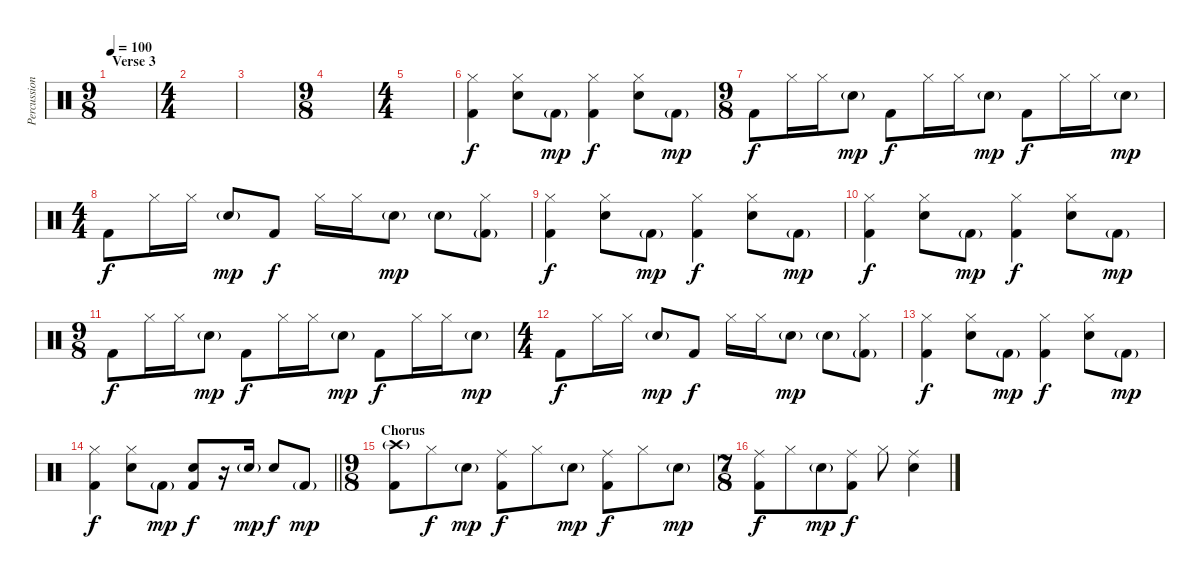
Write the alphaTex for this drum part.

\track ("Percussion" "Percussion") {instrument percussion}
\staff {score}
\articulation defaults
\ts (9 8)
\section ("" "Verse 3")
\tempo 100
\clef neutral
\ks c
|
\ts (4 4)
|
|
\ts (9 8)
|
\ts (4 4)
|
("Hi-Hat (closed)" "Kick (hit) 2").4 ("Hi-Hat (closed)" "Snare (hit) 2").8 "Kick (hit) 2"{g}.8{dy mp} ("Hi-Hat (closed)" "Kick (hit) 2").4{dy f} ("Hi-Hat (closed)" "Snare (hit) 2").8 "Kick (hit) 2"{g}.8{dy mp} |
\ts (9 8)
"Kick (hit) 2".8{dy f} "Hi-Hat (closed)".16 "Hi-Hat (closed)".16 "Snare (hit) 2"{g}.8{dy mp} "Kick (hit) 2".8{dy f} "Hi-Hat (closed)".16 "Hi-Hat (closed)".16 "Snare (hit) 2"{g}.8{dy mp} "Kick (hit) 2".8{dy f} "Hi-Hat (closed)".16 "Hi-Hat (closed)".16 "Snare (hit) 2"{g}.8{dy mp} |
\ts (4 4)
"Kick (hit) 2".8{dy f} "Hi-Hat (closed)".16 "Hi-Hat (closed)".16 "Snare (hit) 2"{g}.8{dy mp} "Kick (hit) 2".8{dy f} "Hi-Hat (closed)".16 "Hi-Hat (closed)".16 "Snare (hit) 2"{g}.8{dy mp} "Snare (hit) 2"{g}.8 ("Hi-Hat (closed)" "Kick (hit) 2"{g}).8 |
("Hi-Hat (closed)" "Kick (hit) 2").4{dy f} ("Hi-Hat (closed)" "Snare (hit) 2").8 "Kick (hit) 2"{g}.8{dy mp} ("Hi-Hat (closed)" "Kick (hit) 2").4{dy f} ("Hi-Hat (closed)" "Snare (hit) 2").8 "Kick (hit) 2"{g}.8{dy mp} |
("Hi-Hat (closed)" "Kick (hit) 2").4{dy f} ("Hi-Hat (closed)" "Snare (hit) 2").8 "Kick (hit) 2"{g}.8{dy mp} ("Hi-Hat (closed)" "Kick (hit) 2").4{dy f} ("Hi-Hat (closed)" "Snare (hit) 2").8 "Kick (hit) 2"{g}.8{dy mp} |
\ts (9 8)
"Kick (hit) 2".8{dy f} "Hi-Hat (closed)".16 "Hi-Hat (closed)".16 "Snare (hit) 2"{g}.8{dy mp} "Kick (hit) 2".8{dy f} "Hi-Hat (closed)".16 "Hi-Hat (closed)".16 "Snare (hit) 2"{g}.8{dy mp} "Kick (hit) 2".8{dy f} "Hi-Hat (closed)".16 "Hi-Hat (closed)".16 "Snare (hit) 2"{g}.8{dy mp} |
\ts (4 4)
"Kick (hit) 2".8{dy f} "Hi-Hat (closed)".16 "Hi-Hat (closed)".16 "Snare (hit) 2"{g}.8{dy mp} "Kick (hit) 2".8{dy f} "Hi-Hat (closed)".16 "Hi-Hat (closed)".16 "Snare (hit) 2"{g}.8{dy mp} "Snare (hit) 2"{g}.8 ("Hi-Hat (closed)" "Kick (hit) 2"{g}).8 |
("Hi-Hat (closed)" "Kick (hit) 2").4{dy f} ("Hi-Hat (closed)" "Snare (hit) 2").8 "Kick (hit) 2"{g}.8{dy mp} ("Hi-Hat (closed)" "Kick (hit) 2").4{dy f} ("Hi-Hat (closed)" "Snare (hit) 2").8 "Kick (hit) 2"{g}.8{dy mp} |
\barLineRight lightlight
("Hi-Hat (closed)" "Kick (hit) 2").4{dy f} ("Hi-Hat (closed)" "Snare (hit) 2").8 "Kick (hit) 2"{g}.8{dy mp} ("Snare (hit) 2" "Kick (hit) 2").8{dy f} r.16 "Snare (hit) 2"{g}.16{dy mp} "Snare (hit) 2".8{dy f} "Kick (hit) 2"{g}.8{dy mp} |
\ts (9 8)
\section ("" "Chorus")
("Crash high (hit)"{g} "Kick (hit) 2").8 "Hi-Hat (closed)".8{dy f} "Snare (hit) 2"{g}.8{dy mp} ("Ride (middle)" "Kick (hit) 2").8{dy f} "Hi-Hat (closed)".8 "Snare (hit) 2"{g}.8{dy mp} ("Ride (middle)" "Kick (hit) 2").8{dy f} "Hi-Hat (closed)".8 "Snare (hit) 2"{g}.8{dy mp} |
\ts (7 8)
("Ride (middle)" "Kick (hit) 2").8{dy f} "Hi-Hat (closed)".8 "Snare (hit) 2"{g}.8{dy mp} ("Ride (middle)" "Kick (hit) 2").8{dy f} "Hi-Hat (closed)".8 ("Ride (middle)" "Snare (hit) 2").4
